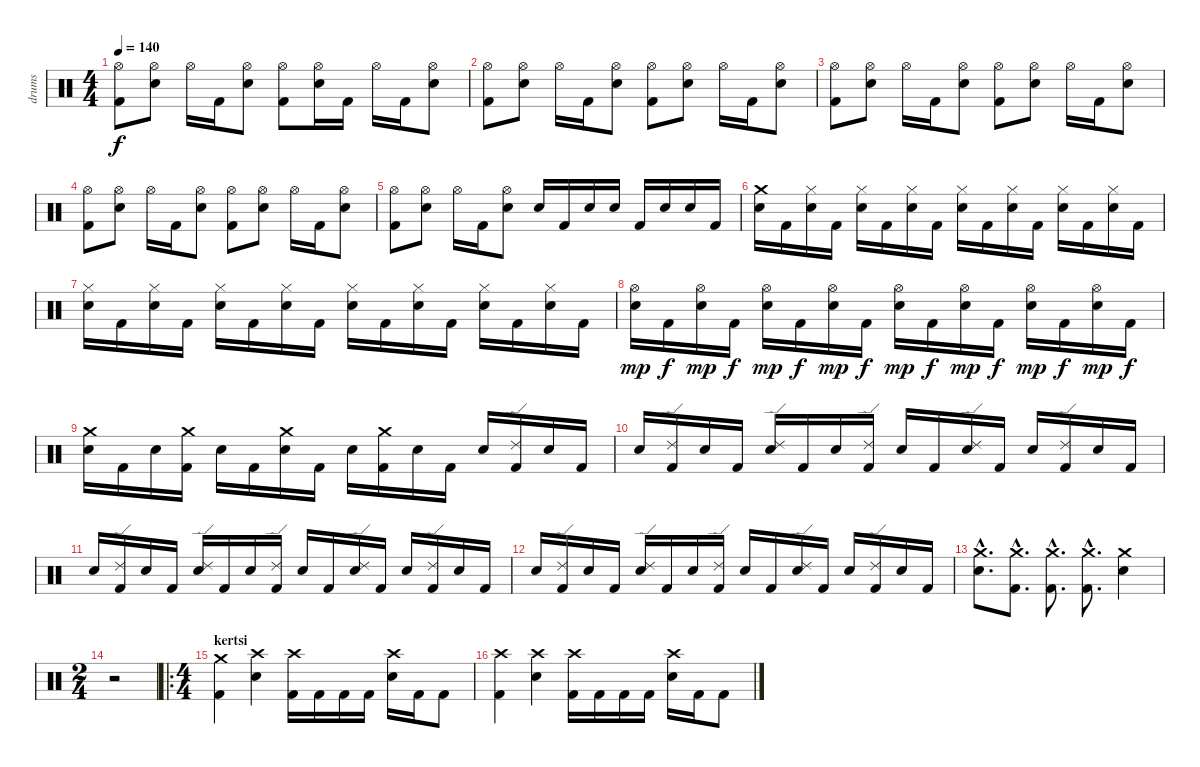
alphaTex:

\track ("drums" "drums") {instrument percussion}
\staff {score}
\articulation defaults
\ts (4 4)
\tempo 140
\clef neutral
\ks c
("Kick (hit) 2" "Hi-Hat (open)").8{dy f} ("Hi-Hat (open)" "Snare (hit) 2").8 "Hi-Hat (open)".16 "Kick (hit) 2".16 ("Hi-Hat (open)" "Snare (hit) 2").8 ("Kick (hit) 2" "Hi-Hat (open)").8 ("Hi-Hat (open)" "Snare (hit) 2").16 "Kick (hit) 2".16 "Hi-Hat (open)".16 "Kick (hit) 2".16 ("Hi-Hat (open)" "Snare (hit) 2").8 |
("Kick (hit) 2" "Hi-Hat (open)").8 ("Hi-Hat (open)" "Snare (hit) 2").8 "Hi-Hat (open)".16 "Kick (hit) 2".16 ("Hi-Hat (open)" "Snare (hit) 2").8 ("Kick (hit) 2" "Hi-Hat (open)").8 ("Hi-Hat (open)" "Snare (hit) 2").8 "Hi-Hat (open)".16 "Kick (hit) 2".16 ("Hi-Hat (open)" "Snare (hit) 2").8 |
("Kick (hit) 2" "Hi-Hat (open)").8 ("Hi-Hat (open)" "Snare (hit) 2").8 "Hi-Hat (open)".16 "Kick (hit) 2".16 ("Hi-Hat (open)" "Snare (hit) 2").8 ("Kick (hit) 2" "Hi-Hat (open)").8 ("Hi-Hat (open)" "Snare (hit) 2").8 "Hi-Hat (open)".16 "Kick (hit) 2".16 ("Hi-Hat (open)" "Snare (hit) 2").8 |
("Kick (hit) 2" "Hi-Hat (open)").8 ("Hi-Hat (open)" "Snare (hit) 2").8 "Hi-Hat (open)".16 "Kick (hit) 2".16 ("Hi-Hat (open)" "Snare (hit) 2").8 ("Kick (hit) 2" "Hi-Hat (open)").8 ("Hi-Hat (open)" "Snare (hit) 2").8 "Hi-Hat (open)".16 "Kick (hit) 2".16 ("Hi-Hat (open)" "Snare (hit) 2").8 |
("Kick (hit) 2" "Hi-Hat (open)").8 ("Hi-Hat (open)" "Snare (hit) 2").8 "Hi-Hat (open)".16 "Kick (hit) 2".16 ("Hi-Hat (open)" "Snare (hit) 2").8 "Snare (hit) 2".16 "Kick (hit) 2".16 "Snare (hit) 2".16 "Snare (hit) 2".16 "Kick (hit) 2".16 "Snare (hit) 2".16 "Snare (hit) 2".16 "Kick (hit) 2".16 |
("Crash medium (hit)" "Snare (hit) 2").16 "Kick (hit) 2".16 ("Hi-Hat (closed)" "Snare (hit) 2").16 "Kick (hit) 2".16 ("Hi-Hat (closed)" "Snare (hit) 2").16 "Kick (hit) 2".16 ("Hi-Hat (closed)" "Snare (hit) 2").16 "Kick (hit) 2".16 ("Hi-Hat (closed)" "Snare (hit) 2").16 "Kick (hit) 2".16 ("Hi-Hat (closed)" "Snare (hit) 2").16 "Kick (hit) 2".16 ("Hi-Hat (closed)" "Snare (hit) 2").16 "Kick (hit) 2".16 ("Hi-Hat (closed)" "Snare (hit) 2").16 "Kick (hit) 2".16 |
("Hi-Hat (closed)" "Snare (hit) 2").16 "Kick (hit) 2".16 ("Hi-Hat (closed)" "Snare (hit) 2").16 "Kick (hit) 2".16 ("Hi-Hat (closed)" "Snare (hit) 2").16 "Kick (hit) 2".16 ("Hi-Hat (closed)" "Snare (hit) 2").16 "Kick (hit) 2".16 ("Hi-Hat (closed)" "Snare (hit) 2").16 "Kick (hit) 2".16 ("Hi-Hat (closed)" "Snare (hit) 2").16 "Kick (hit) 2".16 ("Hi-Hat (closed)" "Snare (hit) 2").16 "Kick (hit) 2".16 ("Hi-Hat (closed)" "Snare (hit) 2").16 "Kick (hit) 2".16 |
("Hi-Hat (open)" "Snare (hit) 2").16{dy mp} "Kick (hit) 2".16{dy f} ("Hi-Hat (open)" "Snare (hit) 2").16{dy mp} "Kick (hit) 2".16{dy f} ("Hi-Hat (open)" "Snare (hit) 2").16{dy mp} "Kick (hit) 2".16{dy f} ("Hi-Hat (open)" "Snare (hit) 2").16{dy mp} "Kick (hit) 2".16{dy f} ("Hi-Hat (open)" "Snare (hit) 2").16{dy mp} "Kick (hit) 2".16{dy f} ("Hi-Hat (open)" "Snare (hit) 2").16{dy mp} "Kick (hit) 2".16{dy f} ("Hi-Hat (open)" "Snare (hit) 2").16{dy mp} "Kick (hit) 2".16{dy f} ("Hi-Hat (open)" "Snare (hit) 2").16{dy mp} "Kick (hit) 2".16{dy f} |
("Crash medium (hit)" "Snare (hit) 2").16 "Kick (hit) 2".16 "Snare (hit) 2".16 ("Kick (hit) 2" "Crash medium (hit)").16 "Snare (hit) 2".16 "Kick (hit) 2".16 ("Crash medium (hit)" "Snare (hit) 2").16 "Kick (hit) 2".16 "Snare (hit) 2".16 ("Kick (hit) 2" "Crash medium (hit)").16 "Snare (hit) 2".16 "Kick (hit) 2".16 "Snare (hit) 2".16 ("Kick (hit) 2" "Ride (edge) 2").16 "Snare (hit) 2".16 "Kick (hit) 2".16 |
"Snare (hit) 2".16 ("Kick (hit) 2" "Ride (edge) 2").16 "Snare (hit) 2".16 "Kick (hit) 2".16 ("Ride (edge) 2" "Snare (hit) 2").16 "Kick (hit) 2".16 "Snare (hit) 2".16 ("Kick (hit) 2" "Ride (edge) 2").16 "Snare (hit) 2".16 "Kick (hit) 2".16 ("Ride (edge) 2" "Snare (hit) 2").16 "Kick (hit) 2".16 "Snare (hit) 2".16 ("Kick (hit) 2" "Ride (edge) 2").16 "Snare (hit) 2".16 "Kick (hit) 2".16 |
"Snare (hit) 2".16 ("Kick (hit) 2" "Ride (edge) 2").16 "Snare (hit) 2".16 "Kick (hit) 2".16 ("Ride (edge) 2" "Snare (hit) 2").16 "Kick (hit) 2".16 "Snare (hit) 2".16 ("Kick (hit) 2" "Ride (edge) 2").16 "Snare (hit) 2".16 "Kick (hit) 2".16 ("Ride (edge) 2" "Snare (hit) 2").16 "Kick (hit) 2".16 "Snare (hit) 2".16 ("Kick (hit) 2" "Ride (edge) 2").16 "Snare (hit) 2".16 "Kick (hit) 2".16 |
"Snare (hit) 2".16 ("Kick (hit) 2" "Ride (edge) 2").16 "Snare (hit) 2".16 "Kick (hit) 2".16 ("Ride (edge) 2" "Snare (hit) 2").16 "Kick (hit) 2".16 "Snare (hit) 2".16 ("Kick (hit) 2" "Ride (edge) 2").16 "Snare (hit) 2".16 "Kick (hit) 2".16 ("Ride (edge) 2" "Snare (hit) 2").16 "Kick (hit) 2".16 "Snare (hit) 2".16 ("Kick (hit) 2" "Ride (edge) 2").16 "Snare (hit) 2".16 "Kick (hit) 2".16 |
("Crash medium (hit)"{hac} "Snare (hit) 2"{hac}).8{d} ("Kick (hit) 2"{hac} "Crash medium (hit)"{hac}).8{d} ("Kick (hit) 2"{hac} "Crash medium (hit)"{hac}).8{d} ("Kick (hit) 2"{hac} "Crash medium (hit)"{hac}).8{d} ("Crash medium (hit)" "Snare (hit) 2").4 |
\ts (2 4)
r.2 |
\ro
\ts (4 4)
\section ("" "kertsi")
("Kick (hit) 2" "Crash medium (hit)").4 ("Crash high (hit)" "Snare (hit) 2").4 ("Kick (hit) 2" "Crash high (hit)").16 "Kick (hit) 2".16 "Kick (hit) 2".16 "Kick (hit) 2".16 ("Crash high (hit)" "Snare (hit) 2").16 "Kick (hit) 2".16 "Kick (hit) 2".8 |
("Kick (hit) 2" "Crash high (hit)").4 ("Crash high (hit)" "Snare (hit) 2").4 ("Kick (hit) 2" "Crash high (hit)").16 "Kick (hit) 2".16 "Kick (hit) 2".16 "Kick (hit) 2".16 ("Crash high (hit)" "Snare (hit) 2").16 "Kick (hit) 2".16 "Kick (hit) 2".8
